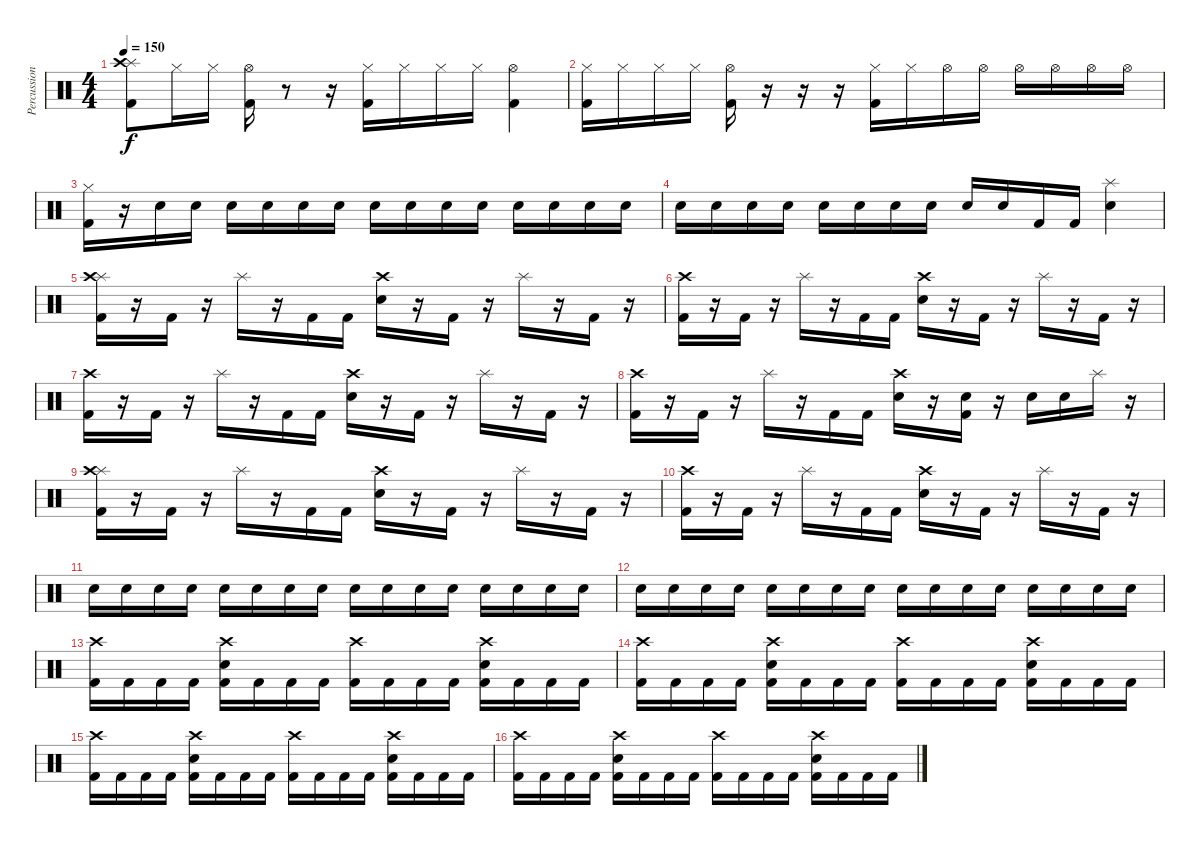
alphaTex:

\track ("Percussion" "Percussion") {instrument percussion}
\staff {score}
\articulation defaults
\ts (4 4)
\tempo 150
\clef neutral
\ks c
("Splash (hit)" "Crash high (hit)" "Kick (hit) 2").8{dy f} "Hi-Hat (closed)".16 "Hi-Hat (closed)".16 ("Hi-Hat (open)" "Kick (hit) 2").16 r.8 r.16 ("Hi-Hat (closed)" "Kick (hit) 2").16 "Hi-Hat (closed)".16 "Hi-Hat (closed)".16 "Hi-Hat (closed)".16 ("Hi-Hat (open)" "Kick (hit) 2").4 |
("Hi-Hat (closed)" "Kick (hit) 2").16 "Hi-Hat (closed)".16 "Hi-Hat (closed)".16 "Hi-Hat (closed)".16 ("Hi-Hat (open)" "Kick (hit) 2").16 r.16 r.16 r.16 ("Hi-Hat (closed)" "Kick (hit) 2").16 "Hi-Hat (closed)".16 "Hi-Hat (open)".16 "Hi-Hat (open)".16 "Hi-Hat (open)".16 "Hi-Hat (open)".16 "Hi-Hat (open)".16 "Hi-Hat (open)".16 |
("Hi-Hat (closed)" "Kick (hit) 2").16 r.16 "Snare (hit) 2".16 "Snare (hit) 2".16 "Snare (hit) 2".16 "Snare (hit) 2".16 "Snare (hit) 2".16 "Snare (hit) 2".16 "Snare (hit) 2".16 "Snare (hit) 2".16 "Snare (hit) 2".16 "Snare (hit) 2".16 "Snare (hit) 2".16 "Snare (hit) 2".16 "Snare (hit) 2".16 "Snare (hit) 2".16 |
"Snare (hit) 2".16 "Snare (hit) 2".16 "Snare (hit) 2".16 "Snare (hit) 2".16 "Snare (hit) 2".16 "Snare (hit) 2".16 "Snare (hit) 2".16 "Snare (hit) 2".16 "Snare (hit) 2".16 "Snare (hit) 2".16 "Kick (hit) 2".16 "Kick (hit) 2".16 ("Splash (hit)" "Snare (hit) 2").4 |
("Splash (hit)" "Crash high (hit)" "Kick (hit) 2").16 r.16 "Kick (hit) 2".16 r.16 "Splash (hit)".16 r.16 "Kick (hit) 2".16 "Kick (hit) 2".16 ("Crash high (hit)" "Snare (hit) 2").16 r.16 "Kick (hit) 2".16 r.16 "Splash (hit)".16 r.16 "Kick (hit) 2".16 r.16 |
("Crash high (hit)" "Kick (hit) 2").16 r.16 "Kick (hit) 2".16 r.16 "Splash (hit)".16 r.16 "Kick (hit) 2".16 "Kick (hit) 2".16 ("Crash high (hit)" "Snare (hit) 2").16 r.16 "Kick (hit) 2".16 r.16 "Splash (hit)".16 r.16 "Kick (hit) 2".16 r.16 |
("Crash high (hit)" "Kick (hit) 2").16 r.16 "Kick (hit) 2".16 r.16 "Splash (hit)".16 r.16 "Kick (hit) 2".16 "Kick (hit) 2".16 ("Crash high (hit)" "Snare (hit) 2").16 r.16 "Kick (hit) 2".16 r.16 "Splash (hit)".16 r.16 "Kick (hit) 2".16 r.16 |
("Crash high (hit)" "Kick (hit) 2").16 r.16 "Kick (hit) 2".16 r.16 "Splash (hit)".16 r.16 "Kick (hit) 2".16 "Kick (hit) 2".16 ("Crash high (hit)" "Snare (hit) 2").16 r.16 ("Snare (hit) 2" "Kick (hit) 2").16 r.16 "Snare (hit) 2".16 "Snare (hit) 2".16 "Splash (hit)".16 r.16 |
("Splash (hit)" "Crash high (hit)" "Kick (hit) 2").16 r.16 "Kick (hit) 2".16 r.16 "Splash (hit)".16 r.16 "Kick (hit) 2".16 "Kick (hit) 2".16 ("Crash high (hit)" "Snare (hit) 2").16 r.16 "Kick (hit) 2".16 r.16 "Splash (hit)".16 r.16 "Kick (hit) 2".16 r.16 |
("Crash high (hit)" "Kick (hit) 2").16 r.16 "Kick (hit) 2".16 r.16 "Splash (hit)".16 r.16 "Kick (hit) 2".16 "Kick (hit) 2".16 ("Crash high (hit)" "Snare (hit) 2").16 r.16 "Kick (hit) 2".16 r.16 "Splash (hit)".16 r.16 "Kick (hit) 2".16 r.16 |
"Snare (hit) 2".16 "Snare (hit) 2".16 "Snare (hit) 2".16 "Snare (hit) 2".16 "Snare (hit) 2".16 "Snare (hit) 2".16 "Snare (hit) 2".16 "Snare (hit) 2".16 "Snare (hit) 2".16 "Snare (hit) 2".16 "Snare (hit) 2".16 "Snare (hit) 2".16 "Snare (hit) 2".16 "Snare (hit) 2".16 "Snare (hit) 2".16 "Snare (hit) 2".16 |
"Snare (hit) 2".16 "Snare (hit) 2".16 "Snare (hit) 2".16 "Snare (hit) 2".16 "Snare (hit) 2".16 "Snare (hit) 2".16 "Snare (hit) 2".16 "Snare (hit) 2".16 "Snare (hit) 2".16 "Snare (hit) 2".16 "Snare (hit) 2".16 "Snare (hit) 2".16 "Snare (hit) 2".16 "Snare (hit) 2".16 "Snare (hit) 2".16 "Snare (hit) 2".16 |
("Crash high (hit)" "Kick (hit) 2").16 "Kick (hit) 2".16 "Kick (hit) 2".16 "Kick (hit) 2".16 ("Crash high (hit)" "Snare (hit) 2" "Kick (hit) 2").16 "Kick (hit) 2".16 "Kick (hit) 2".16 "Kick (hit) 2".16 ("Crash high (hit)" "Kick (hit) 2").16 "Kick (hit) 2".16 "Kick (hit) 2".16 "Kick (hit) 2".16 ("Crash high (hit)" "Snare (hit) 2" "Kick (hit) 2").16 "Kick (hit) 2".16 "Kick (hit) 2".16 "Kick (hit) 2".16 |
("Crash high (hit)" "Kick (hit) 2").16 "Kick (hit) 2".16 "Kick (hit) 2".16 "Kick (hit) 2".16 ("Crash high (hit)" "Snare (hit) 2" "Kick (hit) 2").16 "Kick (hit) 2".16 "Kick (hit) 2".16 "Kick (hit) 2".16 ("Crash high (hit)" "Kick (hit) 2").16 "Kick (hit) 2".16 "Kick (hit) 2".16 "Kick (hit) 2".16 ("Crash high (hit)" "Snare (hit) 2" "Kick (hit) 2").16 "Kick (hit) 2".16 "Kick (hit) 2".16 "Kick (hit) 2".16 |
("Crash high (hit)" "Kick (hit) 2").16 "Kick (hit) 2".16 "Kick (hit) 2".16 "Kick (hit) 2".16 ("Crash high (hit)" "Snare (hit) 2" "Kick (hit) 2").16 "Kick (hit) 2".16 "Kick (hit) 2".16 "Kick (hit) 2".16 ("Crash high (hit)" "Kick (hit) 2").16 "Kick (hit) 2".16 "Kick (hit) 2".16 "Kick (hit) 2".16 ("Crash high (hit)" "Snare (hit) 2" "Kick (hit) 2").16 "Kick (hit) 2".16 "Kick (hit) 2".16 "Kick (hit) 2".16 |
("Crash high (hit)" "Kick (hit) 2").16 "Kick (hit) 2".16 "Kick (hit) 2".16 "Kick (hit) 2".16 ("Crash high (hit)" "Snare (hit) 2" "Kick (hit) 2").16 "Kick (hit) 2".16 "Kick (hit) 2".16 "Kick (hit) 2".16 ("Crash high (hit)" "Kick (hit) 2").16 "Kick (hit) 2".16 "Kick (hit) 2".16 "Kick (hit) 2".16 ("Crash high (hit)" "Snare (hit) 2" "Kick (hit) 2").16 "Kick (hit) 2".16 "Kick (hit) 2".16 "Kick (hit) 2".16
